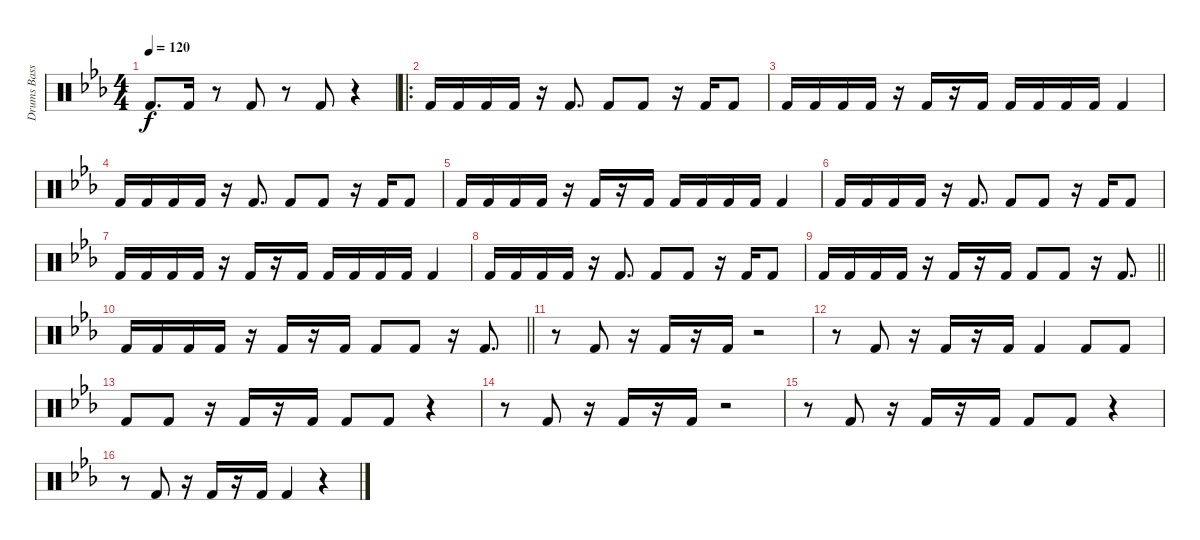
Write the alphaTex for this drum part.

\track ("Drums Bass" "Drums Bass") {instrument percussion}
\staff {score}
\articulation defaults
\ts (4 4)
\tempo 120
\clef neutral
\ks eb "Kick (hit) 2".8{d dy f} "Kick (hit) 2".16
r.8 "Kick (hit) 2".8 r.8 "Kick (hit) 2".8 r.4 |
\ro "Kick (hit) 2".16 "Kick (hit) 2".16 "Kick (hit) 2".16 "Kick (hit) 2".16
r.16 "Kick (hit) 2".8{d} "Kick (hit) 2".8 "Kick (hit) 2".8 r.16 "Kick (hit) 2".16 "Kick (hit) 2".8 |
"Kick (hit) 2".16 "Kick (hit) 2".16 "Kick (hit) 2".16 "Kick (hit) 2".16 r.16 "Kick (hit) 2".16 r.16 "Kick (hit) 2".16 "Kick (hit) 2".16 "Kick (hit) 2".16 "Kick (hit) 2".16 "Kick (hit) 2".16 "Kick (hit) 2".4 |
"Kick (hit) 2".16 "Kick (hit) 2".16 "Kick (hit) 2".16 "Kick (hit) 2".16 r.16 "Kick (hit) 2".8{d} "Kick (hit) 2".8 "Kick (hit) 2".8 r.16 "Kick (hit) 2".16 "Kick (hit) 2".8 |
"Kick (hit) 2".16 "Kick (hit) 2".16 "Kick (hit) 2".16 "Kick (hit) 2".16 r.16 "Kick (hit) 2".16 r.16 "Kick (hit) 2".16 "Kick (hit) 2".16 "Kick (hit) 2".16 "Kick (hit) 2".16 "Kick (hit) 2".16 "Kick (hit) 2".4 |
"Kick (hit) 2".16 "Kick (hit) 2".16 "Kick (hit) 2".16 "Kick (hit) 2".16 r.16 "Kick (hit) 2".8{d} "Kick (hit) 2".8 "Kick (hit) 2".8 r.16 "Kick (hit) 2".16 "Kick (hit) 2".8 |
"Kick (hit) 2".16 "Kick (hit) 2".16 "Kick (hit) 2".16 "Kick (hit) 2".16 r.16 "Kick (hit) 2".16 r.16 "Kick (hit) 2".16 "Kick (hit) 2".16 "Kick (hit) 2".16 "Kick (hit) 2".16 "Kick (hit) 2".16 "Kick (hit) 2".4 |
"Kick (hit) 2".16 "Kick (hit) 2".16 "Kick (hit) 2".16 "Kick (hit) 2".16 r.16 "Kick (hit) 2".8{d} "Kick (hit) 2".8 "Kick (hit) 2".8 r.16 "Kick (hit) 2".16 "Kick (hit) 2".8 |
\barLineRight lightlight "Kick (hit) 2".16 "Kick (hit) 2".16 "Kick (hit) 2".16 "Kick (hit) 2".16
r.16 "Kick (hit) 2".16 r.16 "Kick (hit) 2".16 "Kick (hit) 2".8 "Kick (hit) 2".8 r.16 "Kick (hit) 2".8{d} |
\barLineRight lightlight "Kick (hit) 2".16 "Kick (hit) 2".16 "Kick (hit) 2".16 "Kick (hit) 2".16
r.16 "Kick (hit) 2".16 r.16 "Kick (hit) 2".16 "Kick (hit) 2".8 "Kick (hit) 2".8 r.16 "Kick (hit) 2".8{d} |
r.8 "Kick (hit) 2".8 r.16 "Kick (hit) 2".16 r.16 "Kick (hit) 2".16 r.2 |
r.8 "Kick (hit) 2".8 r.16 "Kick (hit) 2".16 r.16 "Kick (hit) 2".16 "Kick (hit) 2".4 "Kick (hit) 2".8 "Kick (hit) 2".8 |
"Kick (hit) 2".8 "Kick (hit) 2".8 r.16 "Kick (hit) 2".16 r.16 "Kick (hit) 2".16 "Kick (hit) 2".8 "Kick (hit) 2".8 r.4 |
r.8 "Kick (hit) 2".8 r.16 "Kick (hit) 2".16 r.16 "Kick (hit) 2".16 r.2 |
r.8 "Kick (hit) 2".8 r.16 "Kick (hit) 2".16 r.16 "Kick (hit) 2".16 "Kick (hit) 2".8 "Kick (hit) 2".8 r.4 |
r.8 "Kick (hit) 2".8 r.16 "Kick (hit) 2".16 r.16 "Kick (hit) 2".16 "Kick (hit) 2".4 r.4
